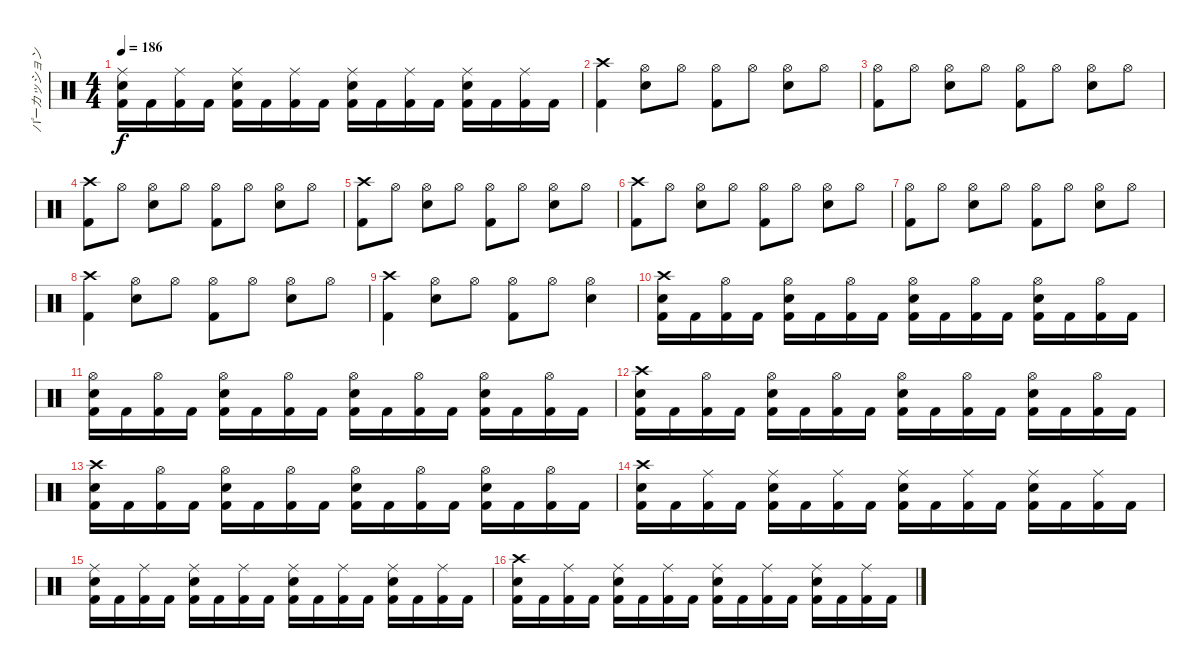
\track ("パーカッション" "パーカッション") {instrument percussion}
\staff {score}
\articulation defaults
\ts (4 4)
\tempo 186
\clef neutral
\ks c
("Ride (middle)" "Snare (hit) 2" "Kick (hit) 2").16{dy f} "Kick (hit) 2".16 ("Ride (middle)" "Kick (hit) 2").16 "Kick (hit) 2".16 ("Ride (middle)" "Snare (hit) 2" "Kick (hit) 2").16 "Kick (hit) 2".16 ("Ride (middle)" "Kick (hit) 2").16 "Kick (hit) 2".16 ("Ride (middle)" "Snare (hit) 2" "Kick (hit) 2").16 "Kick (hit) 2".16 ("Ride (middle)" "Kick (hit) 2").16 "Kick (hit) 2".16 ("Ride (middle)" "Snare (hit) 2" "Kick (hit) 2").16 "Kick (hit) 2".16 ("Ride (middle)" "Kick (hit) 2").16 "Kick (hit) 2".16 |
("Crash high (hit)" "Kick (hit) 2").4 ("Hi-Hat (open)" "Snare (hit) 2").8 "Hi-Hat (open)".8 ("Hi-Hat (open)" "Kick (hit) 2").8 "Hi-Hat (open)".8 ("Hi-Hat (open)" "Snare (hit) 2").8 "Hi-Hat (open)".8 |
("Hi-Hat (open)" "Kick (hit) 2").8 "Hi-Hat (open)".8 ("Hi-Hat (open)" "Snare (hit) 2").8 "Hi-Hat (open)".8 ("Hi-Hat (open)" "Kick (hit) 2").8 "Hi-Hat (open)".8 ("Hi-Hat (open)" "Snare (hit) 2").8 "Hi-Hat (open)".8 |
("Crash high (hit)" "Kick (hit) 2").8 "Hi-Hat (open)".8 ("Hi-Hat (open)" "Snare (hit) 2").8 "Hi-Hat (open)".8 ("Hi-Hat (open)" "Kick (hit) 2").8 "Hi-Hat (open)".8 ("Hi-Hat (open)" "Snare (hit) 2").8 "Hi-Hat (open)".8 |
("Crash high (hit)" "Kick (hit) 2").8 "Hi-Hat (open)".8 ("Hi-Hat (open)" "Snare (hit) 2").8 "Hi-Hat (open)".8 ("Hi-Hat (open)" "Kick (hit) 2").8 "Hi-Hat (open)".8 ("Hi-Hat (open)" "Snare (hit) 2").8 "Hi-Hat (open)".8 |
("Crash high (hit)" "Kick (hit) 2").8 "Hi-Hat (open)".8 ("Hi-Hat (open)" "Snare (hit) 2").8 "Hi-Hat (open)".8 ("Hi-Hat (open)" "Kick (hit) 2").8 "Hi-Hat (open)".8 ("Hi-Hat (open)" "Snare (hit) 2").8 "Hi-Hat (open)".8 |
("Hi-Hat (open)" "Kick (hit) 2").8 "Hi-Hat (open)".8 ("Hi-Hat (open)" "Snare (hit) 2").8 "Hi-Hat (open)".8 ("Hi-Hat (open)" "Kick (hit) 2").8 "Hi-Hat (open)".8 ("Hi-Hat (open)" "Snare (hit) 2").8 "Hi-Hat (open)".8 |
("Crash high (hit)" "Kick (hit) 2").4 ("Hi-Hat (open)" "Snare (hit) 2").8 "Hi-Hat (open)".8 ("Hi-Hat (open)" "Kick (hit) 2").8 "Hi-Hat (open)".8 ("Hi-Hat (open)" "Snare (hit) 2").8 "Hi-Hat (open)".8 |
("Crash high (hit)" "Kick (hit) 2").4 ("Hi-Hat (open)" "Snare (hit) 2").8 "Hi-Hat (open)".8 ("Hi-Hat (open)" "Kick (hit) 2").8 "Hi-Hat (open)".8 ("Hi-Hat (open)" "Snare (hit) 2").4 |
("Crash high (hit)" "Snare (hit) 2" "Kick (hit) 2").16 "Kick (hit) 2".16 ("Hi-Hat (open)" "Kick (hit) 2").16 "Kick (hit) 2".16 ("Hi-Hat (open)" "Snare (hit) 2" "Kick (hit) 2").16 "Kick (hit) 2".16 ("Hi-Hat (open)" "Kick (hit) 2").16 "Kick (hit) 2".16 ("Hi-Hat (open)" "Snare (hit) 2" "Kick (hit) 2").16 "Kick (hit) 2".16 ("Hi-Hat (open)" "Kick (hit) 2").16 "Kick (hit) 2".16 ("Hi-Hat (open)" "Snare (hit) 2" "Kick (hit) 2").16 "Kick (hit) 2".16 ("Hi-Hat (open)" "Kick (hit) 2").16 "Kick (hit) 2".16 |
("Hi-Hat (open)" "Snare (hit) 2" "Kick (hit) 2").16 "Kick (hit) 2".16 ("Hi-Hat (open)" "Kick (hit) 2").16 "Kick (hit) 2".16 ("Hi-Hat (open)" "Snare (hit) 2" "Kick (hit) 2").16 "Kick (hit) 2".16 ("Hi-Hat (open)" "Kick (hit) 2").16 "Kick (hit) 2".16 ("Hi-Hat (open)" "Snare (hit) 2" "Kick (hit) 2").16 "Kick (hit) 2".16 ("Hi-Hat (open)" "Kick (hit) 2").16 "Kick (hit) 2".16 ("Hi-Hat (open)" "Snare (hit) 2" "Kick (hit) 2").16 "Kick (hit) 2".16 ("Hi-Hat (open)" "Kick (hit) 2").16 "Kick (hit) 2".16 |
("Crash high (hit)" "Snare (hit) 2" "Kick (hit) 2").16 "Kick (hit) 2".16 ("Hi-Hat (open)" "Kick (hit) 2").16 "Kick (hit) 2".16 ("Hi-Hat (open)" "Snare (hit) 2" "Kick (hit) 2").16 "Kick (hit) 2".16 ("Hi-Hat (open)" "Kick (hit) 2").16 "Kick (hit) 2".16 ("Hi-Hat (open)" "Snare (hit) 2" "Kick (hit) 2").16 "Kick (hit) 2".16 ("Hi-Hat (open)" "Kick (hit) 2").16 "Kick (hit) 2".16 ("Hi-Hat (open)" "Snare (hit) 2" "Kick (hit) 2").16 "Kick (hit) 2".16 ("Hi-Hat (open)" "Kick (hit) 2").16 "Kick (hit) 2".16 |
("Crash high (hit)" "Snare (hit) 2" "Kick (hit) 2").16 "Kick (hit) 2".16 ("Hi-Hat (open)" "Kick (hit) 2").16 "Kick (hit) 2".16 ("Hi-Hat (open)" "Snare (hit) 2" "Kick (hit) 2").16 "Kick (hit) 2".16 ("Hi-Hat (open)" "Kick (hit) 2").16 "Kick (hit) 2".16 ("Hi-Hat (open)" "Snare (hit) 2" "Kick (hit) 2").16 "Kick (hit) 2".16 ("Hi-Hat (open)" "Kick (hit) 2").16 "Kick (hit) 2".16 ("Hi-Hat (open)" "Snare (hit) 2" "Kick (hit) 2").16 "Kick (hit) 2".16 ("Hi-Hat (open)" "Kick (hit) 2").16 "Kick (hit) 2".16 |
("Crash high (hit)" "Snare (hit) 2" "Kick (hit) 2").16 "Kick (hit) 2".16 ("Ride (middle)" "Kick (hit) 2").16 "Kick (hit) 2".16 ("Ride (middle)" "Snare (hit) 2" "Kick (hit) 2").16 "Kick (hit) 2".16 ("Ride (middle)" "Kick (hit) 2").16 "Kick (hit) 2".16 ("Ride (middle)" "Snare (hit) 2" "Kick (hit) 2").16 "Kick (hit) 2".16 ("Ride (middle)" "Kick (hit) 2").16 "Kick (hit) 2".16 ("Ride (middle)" "Snare (hit) 2" "Kick (hit) 2").16 "Kick (hit) 2".16 ("Ride (middle)" "Kick (hit) 2").16 "Kick (hit) 2".16 |
("Ride (middle)" "Snare (hit) 2" "Kick (hit) 2").16 "Kick (hit) 2".16 ("Ride (middle)" "Kick (hit) 2").16 "Kick (hit) 2".16 ("Ride (middle)" "Snare (hit) 2" "Kick (hit) 2").16 "Kick (hit) 2".16 ("Ride (middle)" "Kick (hit) 2").16 "Kick (hit) 2".16 ("Ride (middle)" "Snare (hit) 2" "Kick (hit) 2").16 "Kick (hit) 2".16 ("Ride (middle)" "Kick (hit) 2").16 "Kick (hit) 2".16 ("Ride (middle)" "Snare (hit) 2" "Kick (hit) 2").16 "Kick (hit) 2".16 ("Ride (middle)" "Kick (hit) 2").16 "Kick (hit) 2".16 |
("Crash high (hit)" "Snare (hit) 2" "Kick (hit) 2").16 "Kick (hit) 2".16 ("Ride (middle)" "Kick (hit) 2").16 "Kick (hit) 2".16 ("Ride (middle)" "Snare (hit) 2" "Kick (hit) 2").16 "Kick (hit) 2".16 ("Ride (middle)" "Kick (hit) 2").16 "Kick (hit) 2".16 ("Ride (middle)" "Snare (hit) 2" "Kick (hit) 2").16 "Kick (hit) 2".16 ("Ride (middle)" "Kick (hit) 2").16 "Kick (hit) 2".16 ("Ride (middle)" "Snare (hit) 2" "Kick (hit) 2").16 "Kick (hit) 2".16 ("Ride (middle)" "Kick (hit) 2").16 "Kick (hit) 2".16
